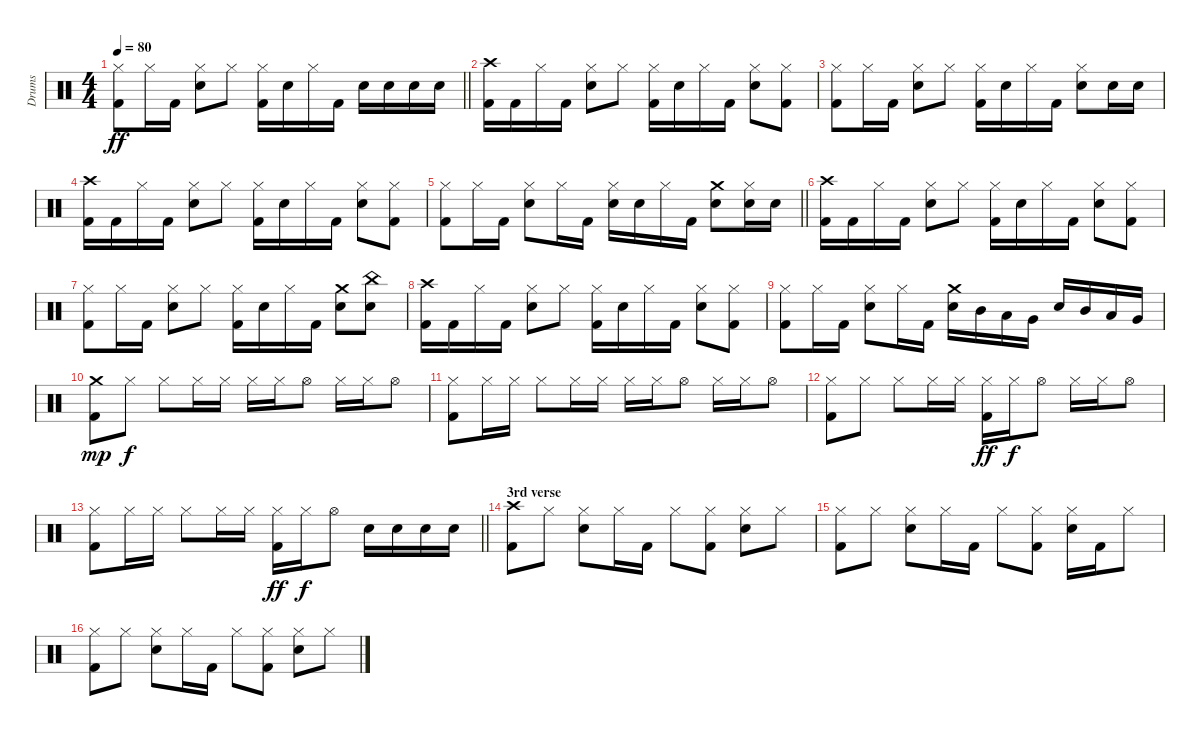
\track ("Drums" "Drums") {instrument percussion}
\staff {score}
\articulation defaults
\ts (4 4)
\tempo 80
\clef neutral
\barLineRight lightlight
\ks c
("Hi-Hat (closed)" "Kick (hit) 2").8{dy ff} "Hi-Hat (closed)".16 "Kick (hit) 2".16 ("Hi-Hat (closed)" "Snare (hit) 2").8 "Hi-Hat (closed)".8 ("Hi-Hat (closed)" "Kick (hit) 2").16 "Snare (hit) 2".16 "Hi-Hat (closed)".16 "Kick (hit) 2".16 "Snare (hit) 2".16 "Snare (hit) 2".16 "Snare (hit) 2".16 "Snare (hit) 2".16 |
("Crash high (hit)" "Kick (hit) 2").16 "Kick (hit) 2".16 "Hi-Hat (closed)".16 "Kick (hit) 2".16 ("Hi-Hat (closed)" "Snare (hit) 2").8 "Hi-Hat (closed)".8 ("Hi-Hat (closed)" "Kick (hit) 2").16 "Snare (hit) 2".16 "Hi-Hat (closed)".16 "Kick (hit) 2".16 ("Hi-Hat (closed)" "Snare (hit) 2").8 ("Hi-Hat (closed)" "Kick (hit) 2").8 |
("Hi-Hat (closed)" "Kick (hit) 2").8 "Hi-Hat (closed)".16 "Kick (hit) 2".16 ("Hi-Hat (closed)" "Snare (hit) 2").8 "Hi-Hat (closed)".8 ("Hi-Hat (closed)" "Kick (hit) 2").16 "Snare (hit) 2".16 "Hi-Hat (closed)".16 "Kick (hit) 2".16 ("Hi-Hat (closed)" "Snare (hit) 2").8 "Snare (hit) 2".16 "Snare (hit) 2".16 |
("Crash high (hit)" "Kick (hit) 2").16 "Kick (hit) 2".16 "Hi-Hat (closed)".16 "Kick (hit) 2".16 ("Hi-Hat (closed)" "Snare (hit) 2").8 "Hi-Hat (closed)".8 ("Hi-Hat (closed)" "Kick (hit) 2").16 "Snare (hit) 2".16 "Hi-Hat (closed)".16 "Kick (hit) 2".16 ("Hi-Hat (closed)" "Snare (hit) 2").8 ("Hi-Hat (closed)" "Kick (hit) 2").8 |
\barLineRight lightlight
("Hi-Hat (closed)" "Kick (hit) 2").8 "Hi-Hat (closed)".16 "Kick (hit) 2".16 ("Hi-Hat (closed)" "Snare (hit) 2").8 "Hi-Hat (closed)".16 "Kick (hit) 2".16 ("Hi-Hat (closed)" "Snare (hit) 2").16 "Snare (hit) 2".16 "Hi-Hat (closed)".16 "Kick (hit) 2".16 ("Crash medium (hit)" "Snare (hit) 2").8 ("Hi-Hat (closed)" "Snare (hit) 2").16 "Snare (hit) 2".16 |
("Crash high (hit)" "Kick (hit) 2").16 "Kick (hit) 2".16 "Hi-Hat (closed)".16 "Kick (hit) 2".16 ("Hi-Hat (closed)" "Snare (hit) 2").8 "Hi-Hat (closed)".8 ("Hi-Hat (closed)" "Kick (hit) 2").16 "Snare (hit) 2".16 "Hi-Hat (closed)".16 "Kick (hit) 2".16 ("Hi-Hat (closed)" "Snare (hit) 2").8 ("Hi-Hat (closed)" "Kick (hit) 2").8 |
("Hi-Hat (closed)" "Kick (hit) 2").8 "Hi-Hat (closed)".16 "Kick (hit) 2".16 ("Hi-Hat (closed)" "Snare (hit) 2").8 "Hi-Hat (closed)".8 ("Hi-Hat (closed)" "Kick (hit) 2").16 "Snare (hit) 2".16 "Hi-Hat (closed)".16 "Kick (hit) 2".16 ("Crash medium (hit)" "Snare (hit) 2").8 ("China (hit)" "Snare (hit) 2").8 |
("Crash high (hit)" "Kick (hit) 2").16 "Kick (hit) 2".16 "Hi-Hat (closed)".16 "Kick (hit) 2".16 ("Hi-Hat (closed)" "Snare (hit) 2").8 "Hi-Hat (closed)".8 ("Hi-Hat (closed)" "Kick (hit) 2").16 "Snare (hit) 2".16 "Hi-Hat (closed)".16 "Kick (hit) 2".16 ("Hi-Hat (closed)" "Snare (hit) 2").8 ("Hi-Hat (closed)" "Kick (hit) 2").8 |
("Hi-Hat (closed)" "Kick (hit) 2").8 "Hi-Hat (closed)".16 "Kick (hit) 2".16 ("Hi-Hat (closed)" "Snare (hit) 2").8 "Hi-Hat (closed)".16 "Kick (hit) 2".16 ("Crash medium (hit)" "Snare (hit) 2").16 "Mid Tom (hit)".16 "Low Tom (hit)".16 "Very Low Tom (hit)".16 "Snare (hit) 2".16 "Mid Tom (hit)".16 "Low Tom (hit)".16 "Very Low Tom (hit)".16 |
("Crash medium (hit)" "Kick (hit) 2").8{dy mp} "Hi-Hat (closed)".8{dy f} "Hi-Hat (closed)".8 "Hi-Hat (closed)".16 "Hi-Hat (closed)".16 "Hi-Hat (closed)".16 "Hi-Hat (closed)".16 "Hi-Hat (open)".8 "Hi-Hat (closed)".16 "Hi-Hat (closed)".16 "Hi-Hat (open)".8 |
("Hi-Hat (closed)" "Kick (hit) 2").8 "Hi-Hat (closed)".16 "Hi-Hat (closed)".16 "Hi-Hat (closed)".8 "Hi-Hat (closed)".16 "Hi-Hat (closed)".16 "Hi-Hat (closed)".16 "Hi-Hat (closed)".16 "Hi-Hat (open)".8 "Hi-Hat (closed)".16 "Hi-Hat (closed)".16 "Hi-Hat (open)".8 |
("Hi-Hat (closed)" "Kick (hit) 2").8 "Hi-Hat (closed)".8 "Hi-Hat (closed)".8 "Hi-Hat (closed)".16 "Hi-Hat (closed)".16 ("Hi-Hat (closed)" "Kick (hit) 2").16{dy ff} "Hi-Hat (closed)".16{dy f} "Hi-Hat (open)".8 "Hi-Hat (closed)".16 "Hi-Hat (closed)".16 "Hi-Hat (open)".8 |
\barLineRight lightlight
("Hi-Hat (closed)" "Kick (hit) 2").8 "Hi-Hat (closed)".16 "Hi-Hat (closed)".16 "Hi-Hat (closed)".8 "Hi-Hat (closed)".16 "Hi-Hat (closed)".16 ("Hi-Hat (closed)" "Kick (hit) 2").16{dy ff} "Hi-Hat (closed)".16{dy f} "Hi-Hat (open)".8 "Snare (hit) 2".16 "Snare (hit) 2".16 "Snare (hit) 2".16 "Snare (hit) 2".16 |
\section ("" "3rd verse")
("Crash high (hit)" "Kick (hit) 2").8 "Hi-Hat (closed)".8 ("Hi-Hat (closed)" "Snare (hit) 2").8 "Hi-Hat (closed)".16 "Kick (hit) 2".16 "Hi-Hat (closed)".8 ("Hi-Hat (closed)" "Kick (hit) 2").8 ("Hi-Hat (closed)" "Snare (hit) 2").8 "Hi-Hat (closed)".8 |
("Hi-Hat (closed)" "Kick (hit) 2").8 "Hi-Hat (closed)".8 ("Hi-Hat (closed)" "Snare (hit) 2").8 "Hi-Hat (closed)".16 "Kick (hit) 2".16 "Hi-Hat (closed)".8 ("Hi-Hat (closed)" "Kick (hit) 2").8 ("Hi-Hat (closed)" "Snare (hit) 2").16 "Kick (hit) 2".16 "Hi-Hat (closed)".8 |
("Hi-Hat (closed)" "Kick (hit) 2").8 "Hi-Hat (closed)".8 ("Hi-Hat (closed)" "Snare (hit) 2").8 "Hi-Hat (closed)".16 "Kick (hit) 2".16 "Hi-Hat (closed)".8 ("Hi-Hat (closed)" "Kick (hit) 2").8 ("Hi-Hat (closed)" "Snare (hit) 2").8 "Hi-Hat (closed)".8
